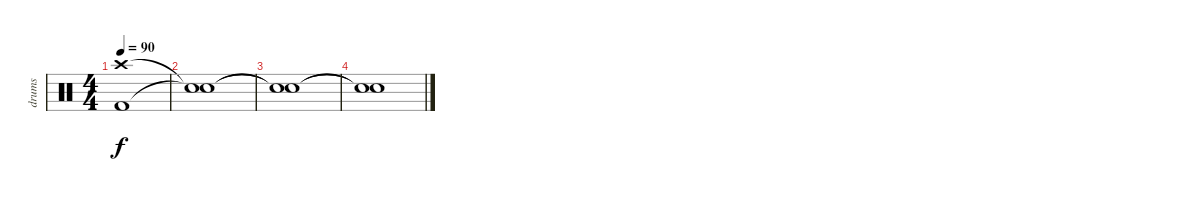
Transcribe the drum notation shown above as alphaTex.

\track ("drums" "drums") {instrument percussion}
\staff
\articulation defaults
\ts (4 4)
\tempo 90
\clef neutral
\ks c
("Crash high (hit)" "Kick (hit) 2").1{dy f} |
("Snare (hit)"{t} "Snare (hit)"{t}).1 |
("Snare (hit)"{t} "Snare (hit)"{t}).1 |
("Snare (hit)"{t} "Snare (hit)"{t}).1
